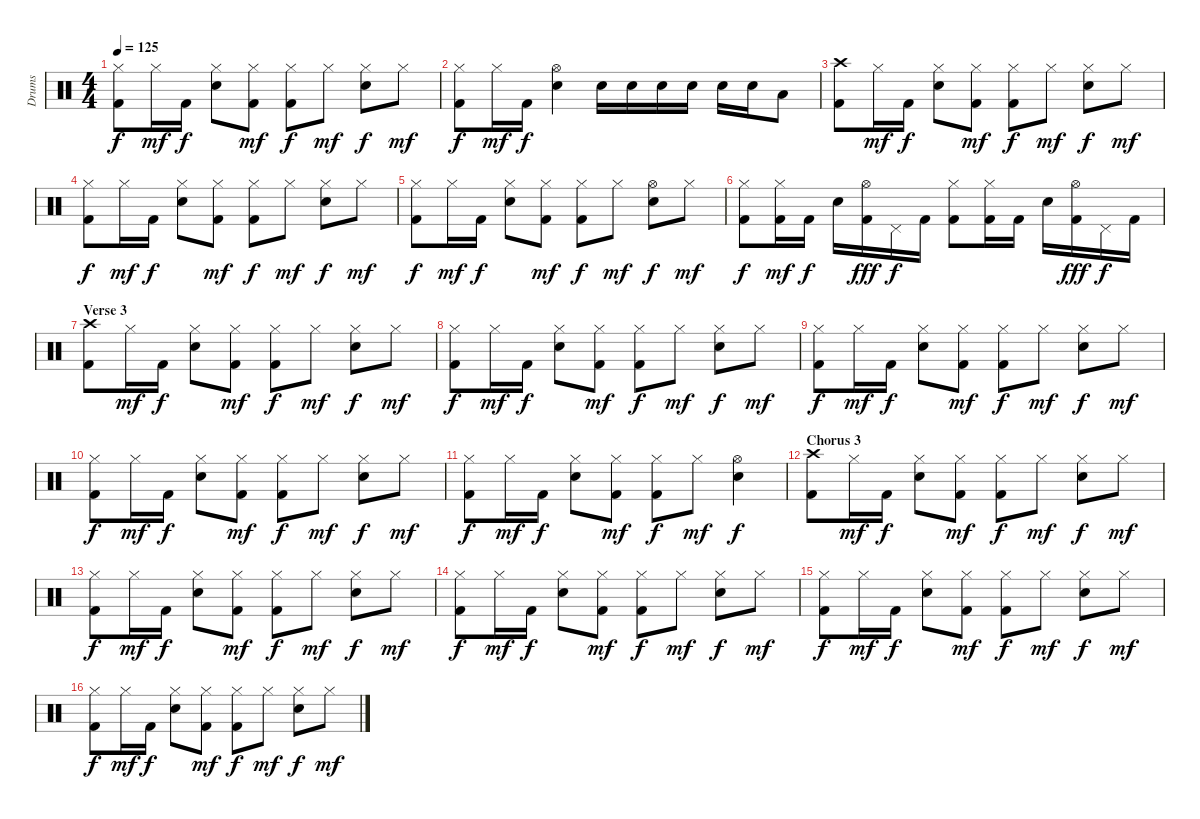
\track ("Drums" "Drums") {instrument percussion}
\staff {score}
\articulation defaults
\ts (4 4)
\tempo 125
\clef neutral
\ks c
("Hi-Hat (closed)" "Kick (hit) 2").8{dy f} "Hi-Hat (closed)".16{dy mf} "Kick (hit) 2".16{dy f} ("Hi-Hat (closed)" "Electric Snare (hit)").8 ("Hi-Hat (closed)" "Kick (hit) 2").8{dy mf} ("Hi-Hat (closed)" "Kick (hit) 2").8{dy f} "Hi-Hat (closed)".8{dy mf} ("Hi-Hat (closed)" "Electric Snare (hit)").8{dy f} "Hi-Hat (closed)".8{dy mf} |
("Hi-Hat (closed)" "Kick (hit) 2").8{dy f} "Hi-Hat (closed)".16{dy mf} "Kick (hit) 2".16{dy f} ("Hi-Hat (open)" "Electric Snare (hit)").4 "Electric Snare (hit)".16 "Electric Snare (hit)".16 "Electric Snare (hit)".16 "Electric Snare (hit)".16 "Electric Snare (hit)".16 "Electric Snare (hit)".16 "Low Tom (hit)".8 |
("Crash high (hit)" "Kick (hit) 2").8 "Hi-Hat (closed)".16{dy mf} "Kick (hit) 2".16{dy f} ("Hi-Hat (closed)" "Electric Snare (hit)").8 ("Hi-Hat (closed)" "Kick (hit) 2").8{dy mf} ("Hi-Hat (closed)" "Kick (hit) 2").8{dy f} "Hi-Hat (closed)".8{dy mf} ("Hi-Hat (closed)" "Electric Snare (hit)").8{dy f} "Hi-Hat (closed)".8{dy mf} |
("Hi-Hat (closed)" "Kick (hit) 2").8{dy f} "Hi-Hat (closed)".16{dy mf} "Kick (hit) 2".16{dy f} ("Hi-Hat (closed)" "Electric Snare (hit)").8 ("Hi-Hat (closed)" "Kick (hit) 2").8{dy mf} ("Hi-Hat (closed)" "Kick (hit) 2").8{dy f} "Hi-Hat (closed)".8{dy mf} ("Hi-Hat (closed)" "Electric Snare (hit)").8{dy f} "Hi-Hat (closed)".8{dy mf} |
("Hi-Hat (closed)" "Kick (hit) 2").8{dy f} "Hi-Hat (closed)".16{dy mf} "Kick (hit) 2".16{dy f} ("Hi-Hat (closed)" "Electric Snare (hit)").8 ("Hi-Hat (closed)" "Kick (hit) 2").8{dy mf} ("Hi-Hat (closed)" "Kick (hit) 2").8{dy f} "Hi-Hat (closed)".8{dy mf} ("Hi-Hat (open)" "Electric Snare (hit)").8{dy f} "Hi-Hat (closed)".8{dy mf} |
("Hi-Hat (closed)" "Kick (hit) 2").8{dy f} ("Hi-Hat (closed)" "Kick (hit) 2").16{dy mf} "Kick (hit) 2".16{dy f} "Electric Snare (hit)".16 ("Hi-Hat (open)" "Kick (hit) 2").16{dy fff} "Pedal Hi-Hat (hit)".16{dy f} "Kick (hit) 2".16 ("Hi-Hat (closed)" "Kick (hit) 2").8 ("Hi-Hat (closed)" "Kick (hit) 2").16 "Kick (hit) 2".16 "Electric Snare (hit)".16 ("Hi-Hat (open)" "Kick (hit) 2").16{dy fff} "Pedal Hi-Hat (hit)".16{dy f} "Kick (hit) 2".16 |
\section ("" "Verse 3")
("Crash high (hit)" "Kick (hit) 2").8 "Hi-Hat (closed)".16{dy mf} "Kick (hit) 2".16{dy f} ("Hi-Hat (closed)" "Electric Snare (hit)").8 ("Hi-Hat (closed)" "Kick (hit) 2").8{dy mf} ("Hi-Hat (closed)" "Kick (hit) 2").8{dy f} "Hi-Hat (closed)".8{dy mf} ("Hi-Hat (closed)" "Electric Snare (hit)").8{dy f} "Hi-Hat (closed)".8{dy mf} |
("Hi-Hat (closed)" "Kick (hit) 2").8{dy f} "Hi-Hat (closed)".16{dy mf} "Kick (hit) 2".16{dy f} ("Hi-Hat (closed)" "Electric Snare (hit)").8 ("Hi-Hat (closed)" "Kick (hit) 2").8{dy mf} ("Hi-Hat (closed)" "Kick (hit) 2").8{dy f} "Hi-Hat (closed)".8{dy mf} ("Hi-Hat (closed)" "Electric Snare (hit)").8{dy f} "Hi-Hat (closed)".8{dy mf} |
("Hi-Hat (closed)" "Kick (hit) 2").8{dy f} "Hi-Hat (closed)".16{dy mf} "Kick (hit) 2".16{dy f} ("Hi-Hat (closed)" "Electric Snare (hit)").8 ("Hi-Hat (closed)" "Kick (hit) 2").8{dy mf} ("Hi-Hat (closed)" "Kick (hit) 2").8{dy f} "Hi-Hat (closed)".8{dy mf} ("Hi-Hat (closed)" "Electric Snare (hit)").8{dy f} "Hi-Hat (closed)".8{dy mf} |
("Hi-Hat (closed)" "Kick (hit) 2").8{dy f} "Hi-Hat (closed)".16{dy mf} "Kick (hit) 2".16{dy f} ("Hi-Hat (closed)" "Electric Snare (hit)").8 ("Hi-Hat (closed)" "Kick (hit) 2").8{dy mf} ("Hi-Hat (closed)" "Kick (hit) 2").8{dy f} "Hi-Hat (closed)".8{dy mf} ("Hi-Hat (closed)" "Electric Snare (hit)").8{dy f} "Hi-Hat (closed)".8{dy mf} |
("Hi-Hat (closed)" "Kick (hit) 2").8{dy f} "Hi-Hat (closed)".16{dy mf} "Kick (hit) 2".16{dy f} ("Hi-Hat (closed)" "Electric Snare (hit)").8 ("Hi-Hat (closed)" "Kick (hit) 2").8{dy mf} ("Hi-Hat (closed)" "Kick (hit) 2").8{dy f} "Hi-Hat (closed)".8{dy mf} ("Hi-Hat (open)" "Electric Snare (hit)").4{dy f} |
\section ("" "Chorus 3")
("Crash high (hit)" "Kick (hit) 2").8 "Hi-Hat (closed)".16{dy mf} "Kick (hit) 2".16{dy f} ("Hi-Hat (closed)" "Electric Snare (hit)").8 ("Hi-Hat (closed)" "Kick (hit) 2").8{dy mf} ("Hi-Hat (closed)" "Kick (hit) 2").8{dy f} "Hi-Hat (closed)".8{dy mf} ("Hi-Hat (closed)" "Electric Snare (hit)").8{dy f} "Hi-Hat (closed)".8{dy mf} |
("Hi-Hat (closed)" "Kick (hit) 2").8{dy f} "Hi-Hat (closed)".16{dy mf} "Kick (hit) 2".16{dy f} ("Hi-Hat (closed)" "Electric Snare (hit)").8 ("Hi-Hat (closed)" "Kick (hit) 2").8{dy mf} ("Hi-Hat (closed)" "Kick (hit) 2").8{dy f} "Hi-Hat (closed)".8{dy mf} ("Hi-Hat (closed)" "Electric Snare (hit)").8{dy f} "Hi-Hat (closed)".8{dy mf} |
("Hi-Hat (closed)" "Kick (hit) 2").8{dy f} "Hi-Hat (closed)".16{dy mf} "Kick (hit) 2".16{dy f} ("Hi-Hat (closed)" "Electric Snare (hit)").8 ("Hi-Hat (closed)" "Kick (hit) 2").8{dy mf} ("Hi-Hat (closed)" "Kick (hit) 2").8{dy f} "Hi-Hat (closed)".8{dy mf} ("Hi-Hat (closed)" "Electric Snare (hit)").8{dy f} "Hi-Hat (closed)".8{dy mf} |
("Hi-Hat (closed)" "Kick (hit) 2").8{dy f} "Hi-Hat (closed)".16{dy mf} "Kick (hit) 2".16{dy f} ("Hi-Hat (closed)" "Electric Snare (hit)").8 ("Hi-Hat (closed)" "Kick (hit) 2").8{dy mf} ("Hi-Hat (closed)" "Kick (hit) 2").8{dy f} "Hi-Hat (closed)".8{dy mf} ("Hi-Hat (closed)" "Electric Snare (hit)").8{dy f} "Hi-Hat (closed)".8{dy mf} |
("Hi-Hat (closed)" "Kick (hit) 2").8{dy f} "Hi-Hat (closed)".16{dy mf} "Kick (hit) 2".16{dy f} ("Hi-Hat (closed)" "Electric Snare (hit)").8 ("Hi-Hat (closed)" "Kick (hit) 2").8{dy mf} ("Hi-Hat (closed)" "Kick (hit) 2").8{dy f} "Hi-Hat (closed)".8{dy mf} ("Hi-Hat (closed)" "Electric Snare (hit)").8{dy f} "Hi-Hat (closed)".8{dy mf}
